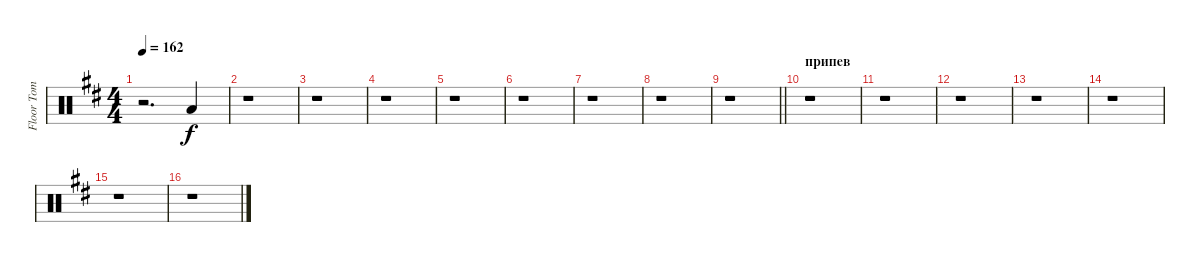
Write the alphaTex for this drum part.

\track ("Floor Tom" "Floor Tom") {instrument percussion}
\staff {score}
\articulation defaults
\ts (4 4)
\tempo 162
\clef neutral
\ks bminor
r.2{d dy f} "Low Tom (hit)".4 |
r.1 |
r.1 |
r.1 |
r.1 |
r.1 |
r.1 |
r.1 |
\barLineRight lightlight
r.1 |
\section ("" "припев")
r.1 |
r.1 |
r.1 |
r.1 |
r.1 |
r.1 |
r.1
